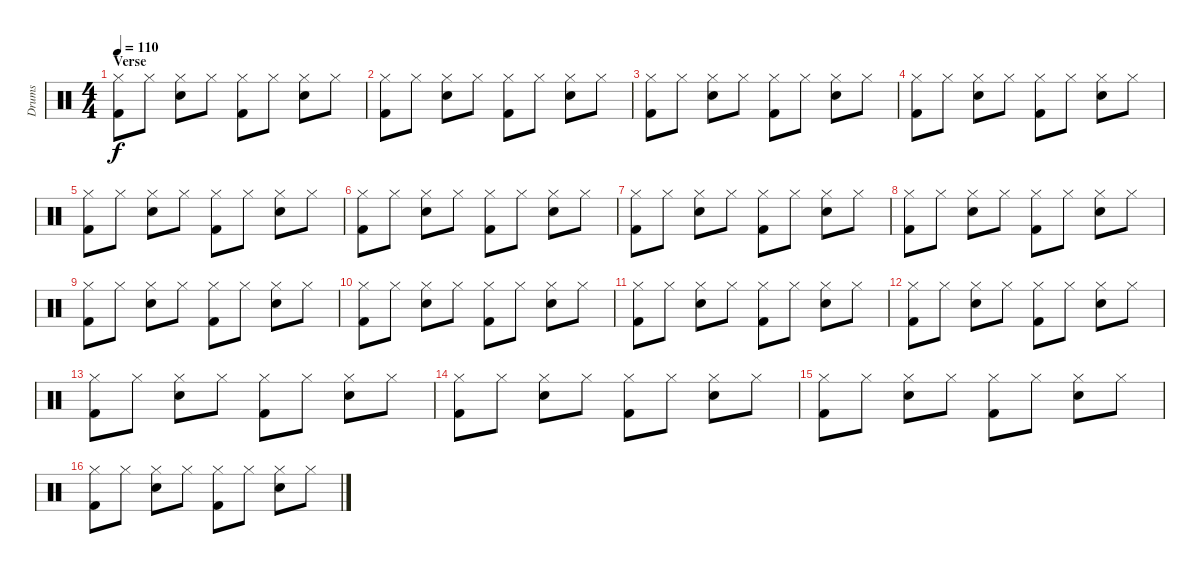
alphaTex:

\track ("Drums" "Drums") {instrument percussion}
\staff {score}
\articulation defaults
\ts (4 4)
\section ("" "Verse")
\tempo 110
\clef neutral
\ks c
("Hi-Hat (closed)" "Kick (hit) 2").8{dy f} "Hi-Hat (closed)".8 ("Hi-Hat (closed)" "Electric Snare (hit)").8 "Hi-Hat (closed)".8 ("Hi-Hat (closed)" "Kick (hit) 2").8 "Hi-Hat (closed)".8 ("Hi-Hat (closed)" "Electric Snare (hit)").8 "Hi-Hat (closed)".8 |
("Hi-Hat (closed)" "Kick (hit) 2").8 "Hi-Hat (closed)".8 ("Hi-Hat (closed)" "Electric Snare (hit)").8 "Hi-Hat (closed)".8 ("Hi-Hat (closed)" "Kick (hit) 2").8 "Hi-Hat (closed)".8 ("Hi-Hat (closed)" "Electric Snare (hit)").8 "Hi-Hat (closed)".8 |
("Hi-Hat (closed)" "Kick (hit) 2").8 "Hi-Hat (closed)".8 ("Hi-Hat (closed)" "Electric Snare (hit)").8 "Hi-Hat (closed)".8 ("Hi-Hat (closed)" "Kick (hit) 2").8 "Hi-Hat (closed)".8 ("Hi-Hat (closed)" "Electric Snare (hit)").8 "Hi-Hat (closed)".8 |
("Hi-Hat (closed)" "Kick (hit) 2").8 "Hi-Hat (closed)".8 ("Hi-Hat (closed)" "Electric Snare (hit)").8 "Hi-Hat (closed)".8 ("Hi-Hat (closed)" "Kick (hit) 2").8 "Hi-Hat (closed)".8 ("Hi-Hat (closed)" "Electric Snare (hit)").8 "Hi-Hat (closed)".8 |
("Hi-Hat (closed)" "Kick (hit) 2").8 "Hi-Hat (closed)".8 ("Hi-Hat (closed)" "Electric Snare (hit)").8 "Hi-Hat (closed)".8 ("Hi-Hat (closed)" "Kick (hit) 2").8 "Hi-Hat (closed)".8 ("Hi-Hat (closed)" "Electric Snare (hit)").8 "Hi-Hat (closed)".8 |
("Hi-Hat (closed)" "Kick (hit) 2").8 "Hi-Hat (closed)".8 ("Hi-Hat (closed)" "Electric Snare (hit)").8 "Hi-Hat (closed)".8 ("Hi-Hat (closed)" "Kick (hit) 2").8 "Hi-Hat (closed)".8 ("Hi-Hat (closed)" "Electric Snare (hit)").8 "Hi-Hat (closed)".8 |
("Hi-Hat (closed)" "Kick (hit) 2").8 "Hi-Hat (closed)".8 ("Hi-Hat (closed)" "Electric Snare (hit)").8 "Hi-Hat (closed)".8 ("Hi-Hat (closed)" "Kick (hit) 2").8 "Hi-Hat (closed)".8 ("Hi-Hat (closed)" "Electric Snare (hit)").8 "Hi-Hat (closed)".8 |
("Hi-Hat (closed)" "Kick (hit) 2").8 "Hi-Hat (closed)".8 ("Hi-Hat (closed)" "Electric Snare (hit)").8 "Hi-Hat (closed)".8 ("Hi-Hat (closed)" "Kick (hit) 2").8 "Hi-Hat (closed)".8 ("Hi-Hat (closed)" "Electric Snare (hit)").8 "Hi-Hat (closed)".8 |
("Hi-Hat (closed)" "Kick (hit) 2").8 "Hi-Hat (closed)".8 ("Hi-Hat (closed)" "Electric Snare (hit)").8 "Hi-Hat (closed)".8 ("Hi-Hat (closed)" "Kick (hit) 2").8 "Hi-Hat (closed)".8 ("Hi-Hat (closed)" "Electric Snare (hit)").8 "Hi-Hat (closed)".8 |
("Hi-Hat (closed)" "Kick (hit) 2").8 "Hi-Hat (closed)".8 ("Hi-Hat (closed)" "Electric Snare (hit)").8 "Hi-Hat (closed)".8 ("Hi-Hat (closed)" "Kick (hit) 2").8 "Hi-Hat (closed)".8 ("Hi-Hat (closed)" "Electric Snare (hit)").8 "Hi-Hat (closed)".8 |
("Hi-Hat (closed)" "Kick (hit) 2").8 "Hi-Hat (closed)".8 ("Hi-Hat (closed)" "Electric Snare (hit)").8 "Hi-Hat (closed)".8 ("Hi-Hat (closed)" "Kick (hit) 2").8 "Hi-Hat (closed)".8 ("Hi-Hat (closed)" "Electric Snare (hit)").8 "Hi-Hat (closed)".8 |
("Hi-Hat (closed)" "Kick (hit) 2").8 "Hi-Hat (closed)".8 ("Hi-Hat (closed)" "Electric Snare (hit)").8 "Hi-Hat (closed)".8 ("Hi-Hat (closed)" "Kick (hit) 2").8 "Hi-Hat (closed)".8 ("Hi-Hat (closed)" "Electric Snare (hit)").8 "Hi-Hat (closed)".8 |
("Hi-Hat (closed)" "Kick (hit) 2").8 "Hi-Hat (closed)".8 ("Hi-Hat (closed)" "Electric Snare (hit)").8 "Hi-Hat (closed)".8 ("Hi-Hat (closed)" "Kick (hit) 2").8 "Hi-Hat (closed)".8 ("Hi-Hat (closed)" "Electric Snare (hit)").8 "Hi-Hat (closed)".8 |
("Hi-Hat (closed)" "Kick (hit) 2").8 "Hi-Hat (closed)".8 ("Hi-Hat (closed)" "Electric Snare (hit)").8 "Hi-Hat (closed)".8 ("Hi-Hat (closed)" "Kick (hit) 2").8 "Hi-Hat (closed)".8 ("Hi-Hat (closed)" "Electric Snare (hit)").8 "Hi-Hat (closed)".8 |
("Hi-Hat (closed)" "Kick (hit) 2").8 "Hi-Hat (closed)".8 ("Hi-Hat (closed)" "Electric Snare (hit)").8 "Hi-Hat (closed)".8 ("Hi-Hat (closed)" "Kick (hit) 2").8 "Hi-Hat (closed)".8 ("Hi-Hat (closed)" "Electric Snare (hit)").8 "Hi-Hat (closed)".8 |
("Hi-Hat (closed)" "Kick (hit) 2").8 "Hi-Hat (closed)".8 ("Hi-Hat (closed)" "Electric Snare (hit)").8 "Hi-Hat (closed)".8 ("Hi-Hat (closed)" "Kick (hit) 2").8 "Hi-Hat (closed)".8 ("Hi-Hat (closed)" "Electric Snare (hit)").8 "Hi-Hat (closed)".8
